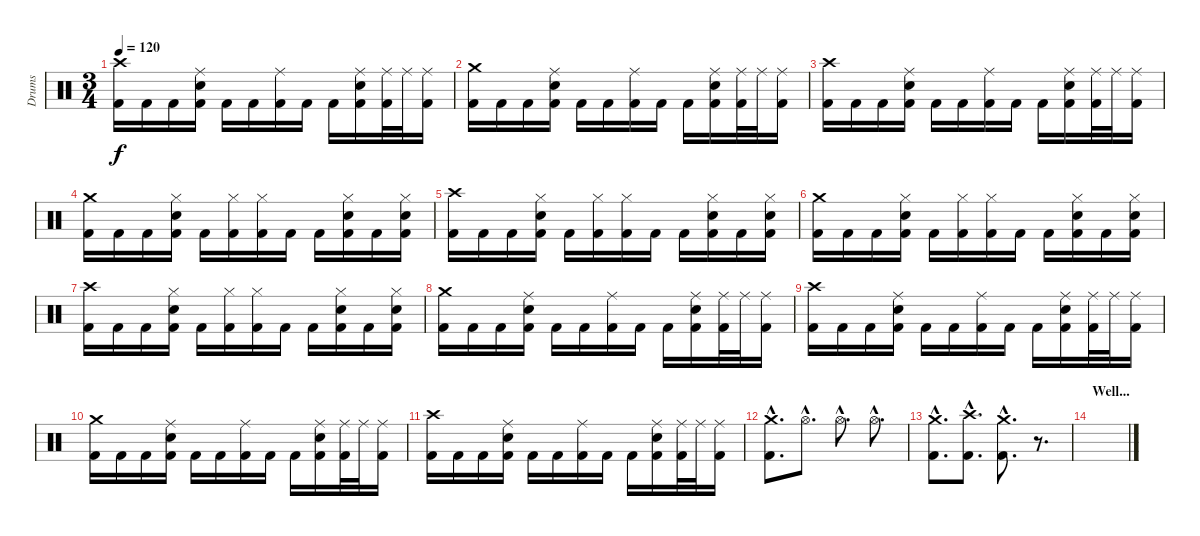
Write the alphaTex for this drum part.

\track ("Drums" "Drums") {instrument percussion}
\staff {score}
\articulation defaults
\ts (3 4)
\tempo 120
\clef neutral
\ks c
("Crash high (hit)" "Kick (hit) 2").16{dy f} "Kick (hit) 2".16 "Kick (hit) 2".16 ("Ride (middle)" "Electric Snare (hit)" "Kick (hit) 2").16 "Kick (hit) 2".16 "Kick (hit) 2".16 ("Ride (middle)" "Kick (hit) 2").16 "Kick (hit) 2".16 "Kick (hit) 2".16 ("Ride (middle)" "Electric Snare (hit)" "Kick (hit) 2").16 ("Ride (middle)" "Kick (hit) 2").32 "Ride (middle)".32 ("Ride (middle)" "Kick (hit) 2").16 |
("Crash medium (hit)" "Kick (hit) 2").16 "Kick (hit) 2".16 "Kick (hit) 2".16 ("Ride (middle)" "Electric Snare (hit)" "Kick (hit) 2").16 "Kick (hit) 2".16 "Kick (hit) 2".16 ("Ride (middle)" "Kick (hit) 2").16 "Kick (hit) 2".16 "Kick (hit) 2".16 ("Ride (middle)" "Electric Snare (hit)" "Kick (hit) 2").16 ("Ride (middle)" "Kick (hit) 2").32 "Ride (middle)".32 ("Ride (middle)" "Kick (hit) 2").16 |
("Crash high (hit)" "Kick (hit) 2").16 "Kick (hit) 2".16 "Kick (hit) 2".16 ("Ride (middle)" "Electric Snare (hit)" "Kick (hit) 2").16 "Kick (hit) 2".16 "Kick (hit) 2".16 ("Ride (middle)" "Kick (hit) 2").16 "Kick (hit) 2".16 "Kick (hit) 2".16 ("Ride (middle)" "Electric Snare (hit)" "Kick (hit) 2").16 ("Ride (middle)" "Kick (hit) 2").32 "Ride (middle)".32 ("Ride (middle)" "Kick (hit) 2").16 |
("Crash medium (hit)" "Kick (hit) 2").16 "Kick (hit) 2".16 "Kick (hit) 2".16 ("Hi-Hat (closed)" "Electric Snare (hit)" "Kick (hit) 2").16 "Kick (hit) 2".16 ("Hi-Hat (closed)" "Kick (hit) 2").16 ("Hi-Hat (closed)" "Kick (hit) 2").16 "Kick (hit) 2".16 "Kick (hit) 2".16 ("Hi-Hat (closed)" "Electric Snare (hit)" "Kick (hit) 2").16 "Kick (hit) 2".16 ("Hi-Hat (closed)" "Electric Snare (hit)" "Kick (hit) 2").16 |
("Crash high (hit)" "Kick (hit) 2").16 "Kick (hit) 2".16 "Kick (hit) 2".16 ("Hi-Hat (closed)" "Electric Snare (hit)" "Kick (hit) 2").16 "Kick (hit) 2".16 ("Hi-Hat (closed)" "Kick (hit) 2").16 ("Hi-Hat (closed)" "Kick (hit) 2").16 "Kick (hit) 2".16 "Kick (hit) 2".16 ("Hi-Hat (closed)" "Electric Snare (hit)" "Kick (hit) 2").16 "Kick (hit) 2".16 ("Hi-Hat (closed)" "Electric Snare (hit)" "Kick (hit) 2").16 |
("Crash medium (hit)" "Kick (hit) 2").16 "Kick (hit) 2".16 "Kick (hit) 2".16 ("Hi-Hat (closed)" "Electric Snare (hit)" "Kick (hit) 2").16 "Kick (hit) 2".16 ("Hi-Hat (closed)" "Kick (hit) 2").16 ("Hi-Hat (closed)" "Kick (hit) 2").16 "Kick (hit) 2".16 "Kick (hit) 2".16 ("Hi-Hat (closed)" "Electric Snare (hit)" "Kick (hit) 2").16 "Kick (hit) 2".16 ("Hi-Hat (closed)" "Electric Snare (hit)" "Kick (hit) 2").16 |
("Crash high (hit)" "Kick (hit) 2").16 "Kick (hit) 2".16 "Kick (hit) 2".16 ("Hi-Hat (closed)" "Electric Snare (hit)" "Kick (hit) 2").16 "Kick (hit) 2".16 ("Hi-Hat (closed)" "Kick (hit) 2").16 ("Hi-Hat (closed)" "Kick (hit) 2").16 "Kick (hit) 2".16 "Kick (hit) 2".16 ("Hi-Hat (closed)" "Electric Snare (hit)" "Kick (hit) 2").16 "Kick (hit) 2".16 ("Hi-Hat (closed)" "Electric Snare (hit)" "Kick (hit) 2").16 |
("Crash medium (hit)" "Kick (hit) 2").16 "Kick (hit) 2".16 "Kick (hit) 2".16 ("Ride (middle)" "Electric Snare (hit)" "Kick (hit) 2").16 "Kick (hit) 2".16 "Kick (hit) 2".16 ("Ride (middle)" "Kick (hit) 2").16 "Kick (hit) 2".16 "Kick (hit) 2".16 ("Ride (middle)" "Electric Snare (hit)" "Kick (hit) 2").16 ("Ride (middle)" "Kick (hit) 2").32 "Ride (middle)".32 ("Ride (middle)" "Kick (hit) 2").16 |
("Crash high (hit)" "Kick (hit) 2").16 "Kick (hit) 2".16 "Kick (hit) 2".16 ("Ride (middle)" "Electric Snare (hit)" "Kick (hit) 2").16 "Kick (hit) 2".16 "Kick (hit) 2".16 ("Ride (middle)" "Kick (hit) 2").16 "Kick (hit) 2".16 "Kick (hit) 2".16 ("Ride (middle)" "Electric Snare (hit)" "Kick (hit) 2").16 ("Ride (middle)" "Kick (hit) 2").32 "Ride (middle)".32 ("Ride (middle)" "Kick (hit) 2").16 |
("Crash medium (hit)" "Kick (hit) 2").16 "Kick (hit) 2".16 "Kick (hit) 2".16 ("Ride (middle)" "Electric Snare (hit)" "Kick (hit) 2").16 "Kick (hit) 2".16 "Kick (hit) 2".16 ("Ride (middle)" "Kick (hit) 2").16 "Kick (hit) 2".16 "Kick (hit) 2".16 ("Ride (middle)" "Electric Snare (hit)" "Kick (hit) 2").16 ("Ride (middle)" "Kick (hit) 2").32 "Ride (middle)".32 ("Ride (middle)" "Kick (hit) 2").16 |
("Crash high (hit)" "Kick (hit) 2").16 "Kick (hit) 2".16 "Kick (hit) 2".16 ("Ride (middle)" "Electric Snare (hit)" "Kick (hit) 2").16 "Kick (hit) 2".16 "Kick (hit) 2".16 ("Ride (middle)" "Kick (hit) 2").16 "Kick (hit) 2".16 "Kick (hit) 2".16 ("Ride (middle)" "Electric Snare (hit)" "Kick (hit) 2").16 ("Ride (middle)" "Kick (hit) 2").32 "Ride (middle)".32 ("Ride (middle)" "Kick (hit) 2").16 |
("Crash medium (hit)"{hac} "Kick (hit) 2"{hac}).8{d} "Hi-Hat (open)"{hac}.8{d} "Hi-Hat (open)"{hac}.8{d} "Hi-Hat (open)"{hac}.8{d} |
("Crash medium (hit)"{hac} "Kick (hit) 2"{hac}).8{d} ("Crash high (hit)"{hac} "Kick (hit) 2"{hac}).8{d} ("Crash medium (hit)"{hac} "Kick (hit) 2"{hac}).8{d} r.8{d} |
\section ("" "Well...")
